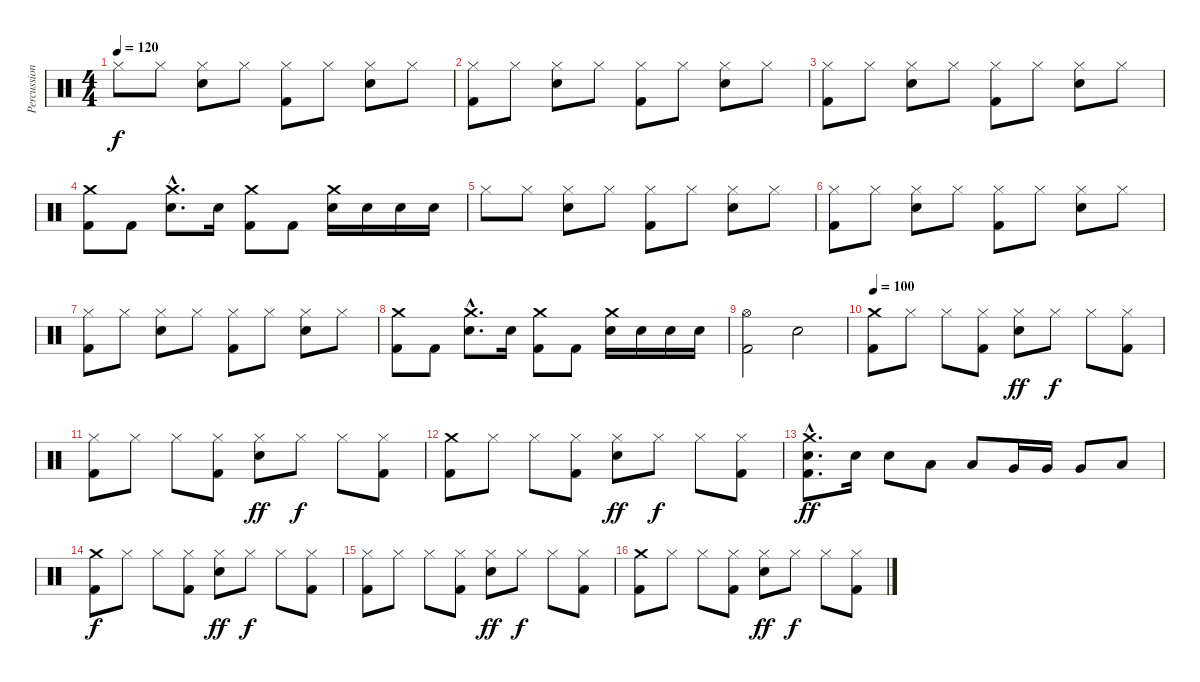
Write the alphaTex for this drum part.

\track ("Percussions" "Percussion") {instrument percussion}
\staff {score}
\articulation defaults
\ts (4 4)
\tempo 120
\clef neutral
\ks c "Hi-Hat (closed)".8{dy f} "Hi-Hat (closed)".8
("Snare (hit) 2" "Hi-Hat (closed)").8 "Hi-Hat (closed)".8 ("Kick (hit) 2" "Hi-Hat (closed)").8 "Hi-Hat (closed)".8 ("Snare (hit) 2" "Hi-Hat (closed)").8 "Hi-Hat (closed)".8 |
("Kick (hit) 2" "Hi-Hat (closed)").8 "Hi-Hat (closed)".8 ("Snare (hit) 2" "Hi-Hat (closed)").8 "Hi-Hat (closed)".8 ("Kick (hit) 2" "Hi-Hat (closed)").8 "Hi-Hat (closed)".8 ("Snare (hit) 2" "Hi-Hat (closed)").8 "Hi-Hat (closed)".8 |
("Kick (hit) 2" "Hi-Hat (closed)").8 "Hi-Hat (closed)".8 ("Snare (hit) 2" "Hi-Hat (closed)").8 "Hi-Hat (closed)".8 ("Kick (hit) 2" "Hi-Hat (closed)").8 "Hi-Hat (closed)".8 ("Snare (hit) 2" "Hi-Hat (closed)").8 "Hi-Hat (closed)".8 |
("Crash medium (hit)" "Kick (hit) 2").8 "Kick (hit) 2".8 ("Crash medium (hit)"{hac} "Snare (hit) 2"{hac}).8{d} "Snare (hit) 2".16 ("Crash medium (hit)" "Kick (hit) 2").8 "Kick (hit) 2".8 ("Crash medium (hit)" "Snare (hit) 2").16 "Snare (hit) 2".16 "Snare (hit) 2".16 "Snare (hit) 2".16 |
"Hi-Hat (closed)".8 "Hi-Hat (closed)".8 ("Snare (hit) 2" "Hi-Hat (closed)").8 "Hi-Hat (closed)".8 ("Kick (hit) 2" "Hi-Hat (closed)").8 "Hi-Hat (closed)".8 ("Snare (hit) 2" "Hi-Hat (closed)").8 "Hi-Hat (closed)".8 |
("Kick (hit) 2" "Hi-Hat (closed)").8 "Hi-Hat (closed)".8 ("Snare (hit) 2" "Hi-Hat (closed)").8 "Hi-Hat (closed)".8 ("Kick (hit) 2" "Hi-Hat (closed)").8 "Hi-Hat (closed)".8 ("Snare (hit) 2" "Hi-Hat (closed)").8 "Hi-Hat (closed)".8 |
("Kick (hit) 2" "Hi-Hat (closed)").8 "Hi-Hat (closed)".8 ("Snare (hit) 2" "Hi-Hat (closed)").8 "Hi-Hat (closed)".8 ("Kick (hit) 2" "Hi-Hat (closed)").8 "Hi-Hat (closed)".8 ("Snare (hit) 2" "Hi-Hat (closed)").8 "Hi-Hat (closed)".8 |
("Crash medium (hit)" "Kick (hit) 2").8 "Kick (hit) 2".8 ("Crash medium (hit)"{hac} "Snare (hit) 2"{hac}).8{d} "Snare (hit) 2".16 ("Crash medium (hit)" "Kick (hit) 2").8 "Kick (hit) 2".8 ("Crash medium (hit)" "Snare (hit) 2").16 "Snare (hit) 2".16 "Snare (hit) 2".16 "Snare (hit) 2".16 |
("Hi-Hat (open)" "Kick (hit) 2").2 "Snare (hit) 2".2 |
\tempo 100
\ks aminor
("Crash medium (hit)" "Kick (hit) 2").8 "Hi-Hat (closed)".8 "Hi-Hat (closed)".8 ("Hi-Hat (closed)" "Kick (hit) 2").8 ("Hi-Hat (closed)" "Snare (hit) 2").8{dy ff} "Hi-Hat (closed)".8{dy f} "Hi-Hat (closed)".8 ("Hi-Hat (closed)" "Kick (hit) 2").8 |
("Hi-Hat (closed)" "Kick (hit) 2").8 "Hi-Hat (closed)".8 "Hi-Hat (closed)".8 ("Hi-Hat (closed)" "Kick (hit) 2").8 ("Hi-Hat (closed)" "Snare (hit) 2").8{dy ff} "Hi-Hat (closed)".8{dy f} "Hi-Hat (closed)".8 ("Hi-Hat (closed)" "Kick (hit) 2").8 |
("Crash medium (hit)" "Kick (hit) 2").8 "Hi-Hat (closed)".8 "Hi-Hat (closed)".8 ("Hi-Hat (closed)" "Kick (hit) 2").8 ("Hi-Hat (closed)" "Snare (hit) 2").8{dy ff} "Hi-Hat (closed)".8{dy f} "Hi-Hat (closed)".8 ("Hi-Hat (closed)" "Kick (hit) 2").8 |
("Crash medium (hit)"{hac} "Snare (hit) 2"{hac} "Kick (hit) 2"{hac}).8{d dy ff} "Snare (hit) 2".16 "Snare (hit) 2".8 "Low Tom (hit)".8 "Low Tom (hit)".8 "Very Low Tom (hit)".16 "Very Low Tom (hit)".16 "Very Low Tom (hit)".8 "Low Floor Tom (hit)".8 |
("Crash medium (hit)" "Kick (hit) 2").8{dy f} "Hi-Hat (closed)".8 "Hi-Hat (closed)".8 ("Hi-Hat (closed)" "Kick (hit) 2").8 ("Hi-Hat (closed)" "Snare (hit) 2").8{dy ff} "Hi-Hat (closed)".8{dy f} "Hi-Hat (closed)".8 ("Hi-Hat (closed)" "Kick (hit) 2").8 |
("Hi-Hat (closed)" "Kick (hit) 2").8 "Hi-Hat (closed)".8 "Hi-Hat (closed)".8 ("Hi-Hat (closed)" "Kick (hit) 2").8 ("Hi-Hat (closed)" "Snare (hit) 2").8{dy ff} "Hi-Hat (closed)".8{dy f} "Hi-Hat (closed)".8 ("Hi-Hat (closed)" "Kick (hit) 2").8 |
("Crash medium (hit)" "Kick (hit) 2").8 "Hi-Hat (closed)".8 "Hi-Hat (closed)".8 ("Hi-Hat (closed)" "Kick (hit) 2").8 ("Hi-Hat (closed)" "Snare (hit) 2").8{dy ff} "Hi-Hat (closed)".8{dy f} "Hi-Hat (closed)".8 ("Hi-Hat (closed)" "Kick (hit) 2").8
